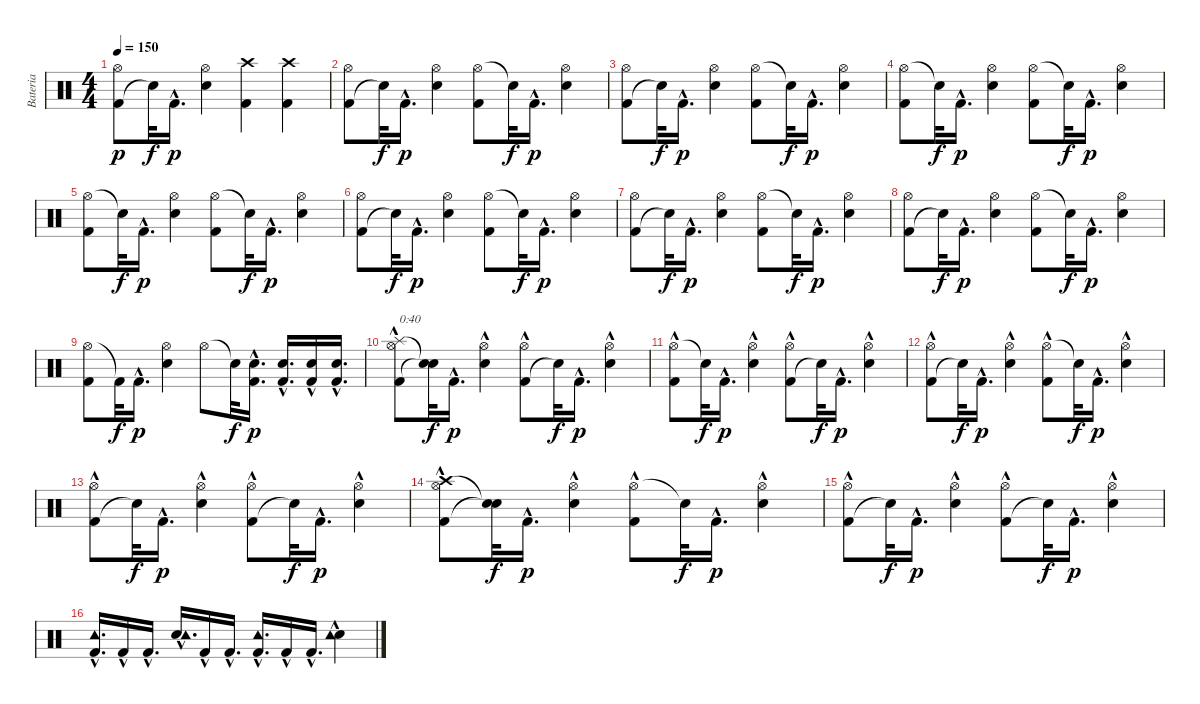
\track ("Bateria" "Bateria") {instrument percussion}
\staff {score}
\articulation defaults
\ts (4 4)
\tempo 150
\clef neutral
\ks c
("Kick (hit) 2" "Hi-Hat (open)").8{dy p} "Snare (hit)"{t}.32{dy f} "Kick (hit) 2"{hac}.16{d dy p} ("Snare (hit) 2" "Hi-Hat (open)").4 ("Crash high (hit)" "Kick (hit) 2").4 ("Crash high (hit)" "Kick (hit) 2").4 |
("Kick (hit) 2" "Hi-Hat (open)").8 "Snare (hit)"{t}.32{dy f} "Kick (hit) 2"{hac}.16{d dy p} ("Snare (hit) 2" "Hi-Hat (open)").4 ("Hi-Hat (open)" "Kick (hit) 2").8 "Snare (hit)"{t}.32{dy f} "Kick (hit) 2"{hac}.16{d dy p} ("Snare (hit) 2" "Hi-Hat (open)").4 |
("Kick (hit) 2" "Hi-Hat (open)").8 "Snare (hit)"{t}.32{dy f} "Kick (hit) 2"{hac}.16{d dy p} ("Hi-Hat (open)" "Snare (hit) 2").4 ("Hi-Hat (open)" "Kick (hit) 2").8 "Snare (hit)"{t}.32{dy f} "Kick (hit) 2"{hac}.16{d dy p} ("Hi-Hat (open)" "Snare (hit) 2").4 |
("Hi-Hat (open)" "Kick (hit) 2").8 "Snare (hit)"{t}.32{dy f} "Kick (hit) 2"{hac}.16{d dy p} ("Hi-Hat (open)" "Snare (hit) 2").4 ("Hi-Hat (open)" "Kick (hit) 2").8 "Snare (hit)"{t}.32{dy f} "Kick (hit) 2"{hac}.16{d dy p} ("Hi-Hat (open)" "Snare (hit) 2").4 |
("Hi-Hat (open)" "Kick (hit) 2").8 "Snare (hit)"{t}.32{dy f} "Kick (hit) 2"{hac}.16{d dy p} ("Hi-Hat (open)" "Snare (hit) 2").4 ("Hi-Hat (open)" "Kick (hit) 2").8 "Snare (hit)"{t}.32{dy f} "Kick (hit) 2"{hac}.16{d dy p} ("Hi-Hat (open)" "Snare (hit) 2").4 |
("Kick (hit) 2" "Hi-Hat (open)").8 "Snare (hit)"{t}.32{dy f} "Kick (hit) 2"{hac}.16{d dy p} ("Hi-Hat (open)" "Snare (hit) 2").4 ("Hi-Hat (open)" "Kick (hit) 2").8 "Snare (hit)"{t}.32{dy f} "Kick (hit) 2"{hac}.16{d dy p} ("Hi-Hat (open)" "Snare (hit) 2").4 |
("Kick (hit) 2" "Hi-Hat (open)").8 "Snare (hit)"{t}.32{dy f} "Kick (hit) 2"{hac}.16{d dy p} ("Hi-Hat (open)" "Snare (hit) 2").4 ("Hi-Hat (open)" "Kick (hit) 2").8 "Snare (hit)"{t}.32{dy f} "Kick (hit) 2"{hac}.16{d dy p} ("Hi-Hat (open)" "Snare (hit) 2").4 |
("Kick (hit) 2" "Hi-Hat (open)").8 "Snare (hit)"{t}.32{dy f} "Kick (hit) 2"{hac}.16{d dy p} ("Hi-Hat (open)" "Snare (hit) 2").4 ("Hi-Hat (open)" "Kick (hit) 2").8 "Snare (hit)"{t}.32{dy f} "Kick (hit) 2"{hac}.16{d dy p} ("Hi-Hat (open)" "Snare (hit) 2").4 |
("Hi-Hat (open)" "Kick (hit) 2").8 "Kick (hit) 2"{t}.32{dy f} "Kick (hit) 2"{hac}.16{d dy p} ("Hi-Hat (open)" "Snare (hit) 2").4 "Hi-Hat (open)".8 "Snare (hit)"{t}.32{dy f} ("Kick (hit) 2"{hac} "Snare (hit) 2"{hac}).16{d dy p} ("Kick (hit) 2"{hac} "Snare (hit) 2"{hac}).16{d} ("Kick (hit) 2"{hac} "Snare (hit) 2"{hac}).16 ("Kick (hit) 2"{hac} "Snare (hit) 2"{hac}).16{d} |
("Splash (hit)" "Kick (hit) 2"{hac} "Hi-Hat (open)").8{txt "0:40"} ("Snare (hit)"{t} "Snare (hit)"{t}).32{dy f} "Kick (hit) 2"{hac}.16{d dy p} ("Snare (hit) 2"{hac} "Hi-Hat (open)").4 ("Kick (hit) 2"{hac} "Hi-Hat (open)").8 "Snare (hit)"{t}.32{dy f} "Kick (hit) 2"{hac}.16{d dy p} ("Snare (hit) 2"{hac} "Hi-Hat (open)").4 |
("Hi-Hat (open)" "Kick (hit) 2"{hac}).8 "Snare (hit)"{t}.32{dy f} "Kick (hit) 2"{hac}.16{d dy p} ("Hi-Hat (open)" "Snare (hit) 2"{hac}).4 ("Kick (hit) 2"{hac} "Hi-Hat (open)").8 "Snare (hit)"{t}.32{dy f} "Kick (hit) 2"{hac}.16{d dy p} ("Hi-Hat (open)" "Snare (hit) 2"{hac}).4 |
("Kick (hit) 2"{hac} "Hi-Hat (open)").8 "Snare (hit)"{t}.32{dy f} "Kick (hit) 2"{hac}.16{d dy p} ("Snare (hit) 2"{hac} "Hi-Hat (open)").4 ("Hi-Hat (open)" "Kick (hit) 2"{hac}).8 "Snare (hit)"{t}.32{dy f} "Kick (hit) 2"{hac}.16{d dy p} ("Snare (hit) 2"{hac} "Hi-Hat (open)").4 |
("Kick (hit) 2"{hac} "Hi-Hat (open)").8 "Snare (hit)"{t}.32{dy f} "Kick (hit) 2"{hac}.16{d dy p} ("Snare (hit) 2"{hac} "Hi-Hat (open)").4 ("Kick (hit) 2"{hac} "Hi-Hat (open)").8 "Snare (hit)"{t}.32{dy f} "Kick (hit) 2"{hac}.16{d dy p} ("Snare (hit) 2"{hac} "Hi-Hat (open)").4 |
("Kick (hit) 2"{hac} "Crash high (hit)" "Hi-Hat (open)").8 ("Snare (hit)"{t} "Snare (hit)"{t}).32{dy f} "Kick (hit) 2"{hac}.16{d dy p} ("Hi-Hat (open)" "Snare (hit) 2"{hac}).4 ("Hi-Hat (open)" "Kick (hit) 2"{hac}).8 "Snare (hit)"{t}.32{dy f} "Kick (hit) 2"{hac}.16{d dy p} ("Hi-Hat (open)" "Snare (hit) 2"{hac}).4 |
("Kick (hit) 2"{hac} "Hi-Hat (open)").8 "Snare (hit)"{t}.32{dy f} "Kick (hit) 2"{hac}.16{d dy p} ("Hi-Hat (open)" "Snare (hit) 2"{hac}).4 ("Kick (hit) 2"{hac} "Hi-Hat (open)").8 "Snare (hit)"{t}.32{dy f} "Kick (hit) 2"{hac}.16{d dy p} ("Snare (hit) 2"{hac} "Hi-Hat (open)").4 |
("Tambourine (hit)" "Kick (hit) 2"{hac}).16{d} "Kick (hit) 2"{hac}.16 "Kick (hit) 2"{hac}.16{d} ("Snare (hit) 2"{hac} "Tambourine (hit)").16{d} "Kick (hit) 2"{hac}.16 "Kick (hit) 2"{hac}.16{d} ("Tambourine (hit)" "Kick (hit) 2"{hac}).16{d} "Kick (hit) 2"{hac}.16 "Kick (hit) 2"{hac}.16{d} ("Snare (hit) 2"{hac} "Tambourine (hit)").4
